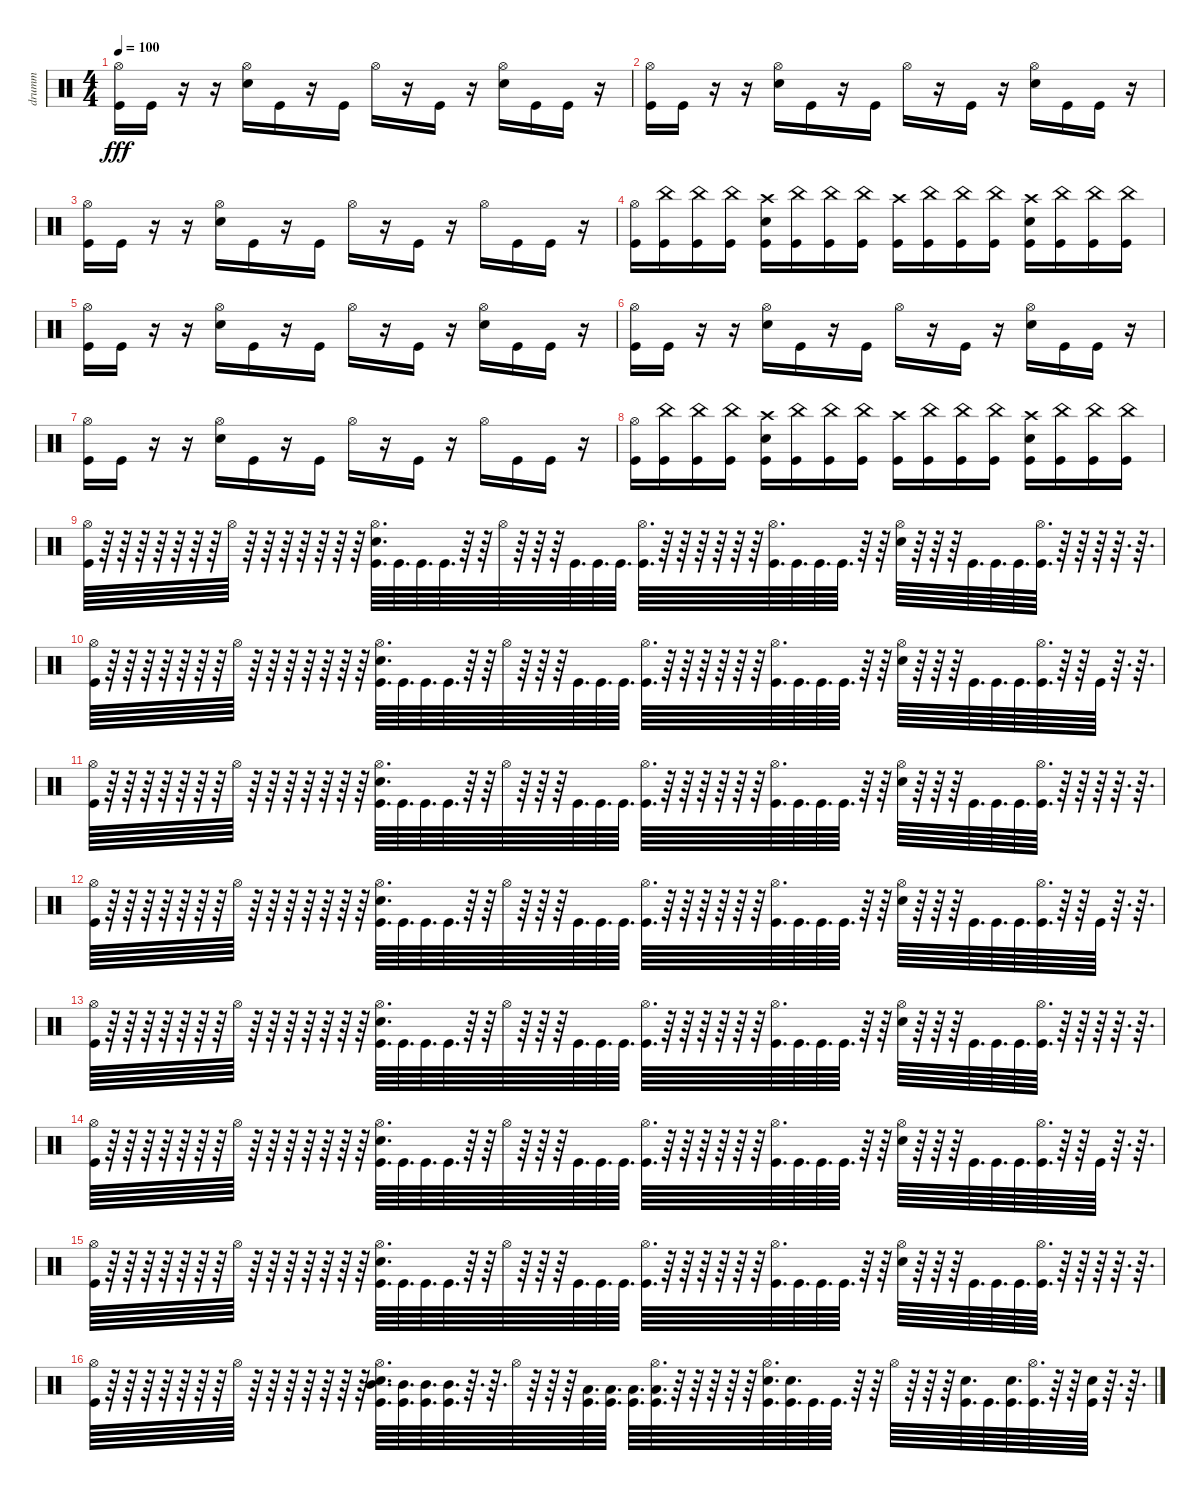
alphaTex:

\track ("drumm" "drumm") {instrument percussion}
\staff {score}
\articulation defaults
\ts (4 4)
\tempo 100
\clef neutral
\ks c
("Hi-Hat (open)" "Kick (hit)").16{dy fff} "Kick (hit)".16 r.16 r.16 ("Hi-Hat (open)" "Electric Snare (hit)").16 "Kick (hit)".16 r.16 "Kick (hit)".16 "Hi-Hat (open)".16 r.16 "Kick (hit)".16 r.16 ("Hi-Hat (open)" "Electric Snare (hit)").16 "Kick (hit)".16 "Kick (hit)".16 r.16 |
("Hi-Hat (open)" "Kick (hit)").16 "Kick (hit)".16 r.16 r.16 ("Hi-Hat (open)" "Electric Snare (hit)").16 "Kick (hit)".16 r.16 "Kick (hit)".16 "Hi-Hat (open)".16 r.16 "Kick (hit)".16 r.16 ("Hi-Hat (open)" "Electric Snare (hit)").16 "Kick (hit)".16 "Kick (hit)".16 r.16 |
("Hi-Hat (open)" "Kick (hit)").16 "Kick (hit)".16 r.16 r.16 ("Hi-Hat (open)" "Electric Snare (hit)").16 "Kick (hit)".16 r.16 "Kick (hit)".16 "Hi-Hat (open)".16 r.16 "Kick (hit)".16 r.16 "Hi-Hat (open)".16 "Kick (hit)".16 "Kick (hit)".16 r.16 |
("Hi-Hat (open)" "Kick (hit)").16 ("China (hit)" "Kick (hit)").16 ("China (hit)" "Kick (hit)").16 ("China (hit)" "Kick (hit)").16 ("Crash high (hit)" "Electric Snare (hit)" "Kick (hit)").16 ("China (hit)" "Kick (hit)").16 ("China (hit)" "Kick (hit)").16 ("China (hit)" "Kick (hit)").16 ("Crash high (hit)" "Kick (hit)").16 ("China (hit)" "Kick (hit)").16 ("China (hit)" "Kick (hit)").16 ("China (hit)" "Kick (hit)").16 ("Crash high (hit)" "Electric Snare (hit)" "Kick (hit)").16 ("China (hit)" "Kick (hit)").16 ("China (hit)" "Kick (hit)").16 ("China (hit)" "Kick (hit)").16 |
("Hi-Hat (open)" "Kick (hit)").16 "Kick (hit)".16 r.16 r.16 ("Hi-Hat (open)" "Electric Snare (hit)").16 "Kick (hit)".16 r.16 "Kick (hit)".16 "Hi-Hat (open)".16 r.16 "Kick (hit)".16 r.16 ("Hi-Hat (open)" "Electric Snare (hit)").16 "Kick (hit)".16 "Kick (hit)".16 r.16 |
("Hi-Hat (open)" "Kick (hit)").16 "Kick (hit)".16 r.16 r.16 ("Hi-Hat (open)" "Electric Snare (hit)").16 "Kick (hit)".16 r.16 "Kick (hit)".16 "Hi-Hat (open)".16 r.16 "Kick (hit)".16 r.16 ("Hi-Hat (open)" "Electric Snare (hit)").16 "Kick (hit)".16 "Kick (hit)".16 r.16 |
("Hi-Hat (open)" "Kick (hit)").16 "Kick (hit)".16 r.16 r.16 ("Hi-Hat (open)" "Electric Snare (hit)").16 "Kick (hit)".16 r.16 "Kick (hit)".16 "Hi-Hat (open)".16 r.16 "Kick (hit)".16 r.16 "Hi-Hat (open)".16 "Kick (hit)".16 "Kick (hit)".16 r.16 |
("Hi-Hat (open)" "Kick (hit)").16 ("China (hit)" "Kick (hit)").16 ("China (hit)" "Kick (hit)").16 ("China (hit)" "Kick (hit)").16 ("Crash high (hit)" "Electric Snare (hit)" "Kick (hit)").16 ("China (hit)" "Kick (hit)").16 ("China (hit)" "Kick (hit)").16 ("China (hit)" "Kick (hit)").16 ("Crash high (hit)" "Kick (hit)").16 ("China (hit)" "Kick (hit)").16 ("China (hit)" "Kick (hit)").16 ("China (hit)" "Kick (hit)").16 ("Crash high (hit)" "Electric Snare (hit)" "Kick (hit)").16 ("China (hit)" "Kick (hit)").16 ("China (hit)" "Kick (hit)").16 ("China (hit)" "Kick (hit)").16 |
("Hi-Hat (open)" "Kick (hit)").64 r.64 r.64 r.64 r.64 r.64 r.64 r.64 "Hi-Hat (open)".64 r.64 r.64 r.64 r.64 r.64 r.64 r.64 ("Hi-Hat (open)" "Electric Snare (hit)" "Kick (hit)").64{d} "Kick (hit)".64{d} "Kick (hit)".64{d} "Kick (hit)".64{d} r.64 r.64 "Hi-Hat (open)".64 r.64 r.64 r.64 "Kick (hit)".64{d} "Kick (hit)".64{d} "Kick (hit)".64{d} ("Hi-Hat (open)" "Kick (hit)").64{d} r.64 r.64 r.64 r.64 r.64 r.64 ("Hi-Hat (open)" "Kick (hit)").64{d} "Kick (hit)".64{d} "Kick (hit)".64{d} "Kick (hit)".64{d} r.64 r.64 ("Hi-Hat (open)" "Electric Snare (hit)").64 r.64 r.64 r.64 "Kick (hit)".64{d} "Kick (hit)".64{d} "Kick (hit)".64{d} ("Hi-Hat (open)" "Kick (hit)").64{d} r.64 r.64 r.64 r.64{d} r.64{d} |
("Hi-Hat (open)" "Kick (hit)").64 r.64 r.64 r.64 r.64 r.64 r.64 r.64 "Hi-Hat (open)".64 r.64 r.64 r.64 r.64 r.64 r.64 r.64 ("Hi-Hat (open)" "Electric Snare (hit)" "Kick (hit)").64{d} "Kick (hit)".64{d} "Kick (hit)".64{d} "Kick (hit)".64{d} r.64 r.64 "Hi-Hat (open)".64 r.64 r.64 r.64 "Kick (hit)".64{d} "Kick (hit)".64{d} "Kick (hit)".64{d} ("Hi-Hat (open)" "Kick (hit)").64{d} r.64 r.64 r.64 r.64 r.64 r.64 ("Hi-Hat (open)" "Kick (hit)").64{d} "Kick (hit)".64{d} "Kick (hit)".64{d} "Kick (hit)".64{d} r.64 r.64 ("Hi-Hat (open)" "Electric Snare (hit)").64 r.64 r.64 r.64 "Kick (hit)".64{d} "Kick (hit)".64{d} "Kick (hit)".64{d} ("Hi-Hat (open)" "Kick (hit)").64{d} r.64 r.64 "Kick (hit)".64 r.64{d} r.64{d} |
("Hi-Hat (open)" "Kick (hit)").64 r.64 r.64 r.64 r.64 r.64 r.64 r.64 "Hi-Hat (open)".64 r.64 r.64 r.64 r.64 r.64 r.64 r.64 ("Hi-Hat (open)" "Electric Snare (hit)" "Kick (hit)").64{d} "Kick (hit)".64{d} "Kick (hit)".64{d} "Kick (hit)".64{d} r.64 r.64 "Hi-Hat (open)".64 r.64 r.64 r.64 "Kick (hit)".64{d} "Kick (hit)".64{d} "Kick (hit)".64{d} ("Hi-Hat (open)" "Kick (hit)").64{d} r.64 r.64 r.64 r.64 r.64 r.64 ("Hi-Hat (open)" "Kick (hit)").64{d} "Kick (hit)".64{d} "Kick (hit)".64{d} "Kick (hit)".64{d} r.64 r.64 ("Hi-Hat (open)" "Electric Snare (hit)").64 r.64 r.64 r.64 "Kick (hit)".64{d} "Kick (hit)".64{d} "Kick (hit)".64{d} ("Hi-Hat (open)" "Kick (hit)").64{d} r.64 r.64 r.64 r.64{d} r.64{d} |
("Hi-Hat (open)" "Kick (hit)").64 r.64 r.64 r.64 r.64 r.64 r.64 r.64 "Hi-Hat (open)".64 r.64 r.64 r.64 r.64 r.64 r.64 r.64 ("Hi-Hat (open)" "Electric Snare (hit)" "Kick (hit)").64{d} "Kick (hit)".64{d} "Kick (hit)".64{d} "Kick (hit)".64{d} r.64 r.64 "Hi-Hat (open)".64 r.64 r.64 r.64 "Kick (hit)".64{d} "Kick (hit)".64{d} "Kick (hit)".64{d} ("Hi-Hat (open)" "Kick (hit)").64{d} r.64 r.64 r.64 r.64 r.64 r.64 ("Hi-Hat (open)" "Kick (hit)").64{d} "Kick (hit)".64{d} "Kick (hit)".64{d} "Kick (hit)".64{d} r.64 r.64 ("Hi-Hat (open)" "Electric Snare (hit)").64 r.64 r.64 r.64 "Kick (hit)".64{d} "Kick (hit)".64{d} "Kick (hit)".64{d} ("Hi-Hat (open)" "Kick (hit)").64{d} r.64 r.64 "Kick (hit)".64 r.64{d} r.64{d} |
("Hi-Hat (open)" "Kick (hit)").64 r.64 r.64 r.64 r.64 r.64 r.64 r.64 "Hi-Hat (open)".64 r.64 r.64 r.64 r.64 r.64 r.64 r.64 ("Hi-Hat (open)" "Electric Snare (hit)" "Kick (hit)").64{d} "Kick (hit)".64{d} "Kick (hit)".64{d} "Kick (hit)".64{d} r.64 r.64 "Hi-Hat (open)".64 r.64 r.64 r.64 "Kick (hit)".64{d} "Kick (hit)".64{d} "Kick (hit)".64{d} ("Hi-Hat (open)" "Kick (hit)").64{d} r.64 r.64 r.64 r.64 r.64 r.64 ("Hi-Hat (open)" "Kick (hit)").64{d} "Kick (hit)".64{d} "Kick (hit)".64{d} "Kick (hit)".64{d} r.64 r.64 ("Hi-Hat (open)" "Electric Snare (hit)").64 r.64 r.64 r.64 "Kick (hit)".64{d} "Kick (hit)".64{d} "Kick (hit)".64{d} ("Hi-Hat (open)" "Kick (hit)").64{d} r.64 r.64 r.64 r.64{d} r.64{d} |
("Hi-Hat (open)" "Kick (hit)").64 r.64 r.64 r.64 r.64 r.64 r.64 r.64 "Hi-Hat (open)".64 r.64 r.64 r.64 r.64 r.64 r.64 r.64 ("Hi-Hat (open)" "Electric Snare (hit)" "Kick (hit)").64{d} "Kick (hit)".64{d} "Kick (hit)".64{d} "Kick (hit)".64{d} r.64 r.64 "Hi-Hat (open)".64 r.64 r.64 r.64 "Kick (hit)".64{d} "Kick (hit)".64{d} "Kick (hit)".64{d} ("Hi-Hat (open)" "Kick (hit)").64{d} r.64 r.64 r.64 r.64 r.64 r.64 ("Hi-Hat (open)" "Kick (hit)").64{d} "Kick (hit)".64{d} "Kick (hit)".64{d} "Kick (hit)".64{d} r.64 r.64 ("Hi-Hat (open)" "Electric Snare (hit)").64 r.64 r.64 r.64 "Kick (hit)".64{d} "Kick (hit)".64{d} "Kick (hit)".64{d} ("Hi-Hat (open)" "Kick (hit)").64{d} r.64 r.64 "Kick (hit)".64 r.64{d} r.64{d} |
("Hi-Hat (open)" "Kick (hit)").64 r.64 r.64 r.64 r.64 r.64 r.64 r.64 "Hi-Hat (open)".64 r.64 r.64 r.64 r.64 r.64 r.64 r.64 ("Hi-Hat (open)" "Electric Snare (hit)" "Kick (hit)").64{d} "Kick (hit)".64{d} "Kick (hit)".64{d} "Kick (hit)".64{d} r.64 r.64 "Hi-Hat (open)".64 r.64 r.64 r.64 "Kick (hit)".64{d} "Kick (hit)".64{d} "Kick (hit)".64{d} ("Hi-Hat (open)" "Kick (hit)").64{d} r.64 r.64 r.64 r.64 r.64 r.64 ("Hi-Hat (open)" "Kick (hit)").64{d} "Kick (hit)".64{d} "Kick (hit)".64{d} "Kick (hit)".64{d} r.64 r.64 ("Hi-Hat (open)" "Electric Snare (hit)").64 r.64 r.64 r.64 "Kick (hit)".64{d} "Kick (hit)".64{d} "Kick (hit)".64{d} ("Hi-Hat (open)" "Kick (hit)").64{d} r.64 r.64 r.64 r.64{d} r.64{d} |
("Hi-Hat (open)" "Kick (hit)").64 r.64 r.64 r.64 r.64 r.64 r.64 r.64 "Hi-Hat (open)".64 r.64 r.64 r.64 r.64 r.64 r.64 r.64 ("Hi-Hat (open)" "Electric Snare (hit)" "Mid Tom (hit)" "Kick (hit)").64{d} ("Mid Tom (hit)" "Kick (hit)").64{d} ("Mid Tom (hit)" "Kick (hit)").64{d} ("Mid Tom (hit)" "Kick (hit)").64{d} r.64{d} r.64{d} "Hi-Hat (open)".64 r.64 r.64 r.64 ("Low Tom (hit)" "Kick (hit)").64{d} ("Low Tom (hit)" "Kick (hit)").64{d} ("Low Tom (hit)" "Kick (hit)").64{d} ("Hi-Hat (open)" "Low Tom (hit)" "Kick (hit)").64{d} r.64 r.64 r.64 r.64 r.64 ("Hi-Hat (open)" "Electric Snare (hit)" "Kick (hit)").64{d} ("Electric Snare (hit)" "Kick (hit)").64{d} "Kick (hit)".64{d} "Kick (hit)".64{d} r.64 r.64 "Hi-Hat (open)".64 r.64 r.64 r.64 ("Electric Snare (hit)" "Kick (hit)").64{d} "Kick (hit)".64{d} ("Electric Snare (hit)" "Kick (hit)").64{d} ("Hi-Hat (open)" "Kick (hit)").64{d} r.64 r.64 ("Snare (hit) 2" "Kick (hit)").64 r.64{d} r.64{d}
